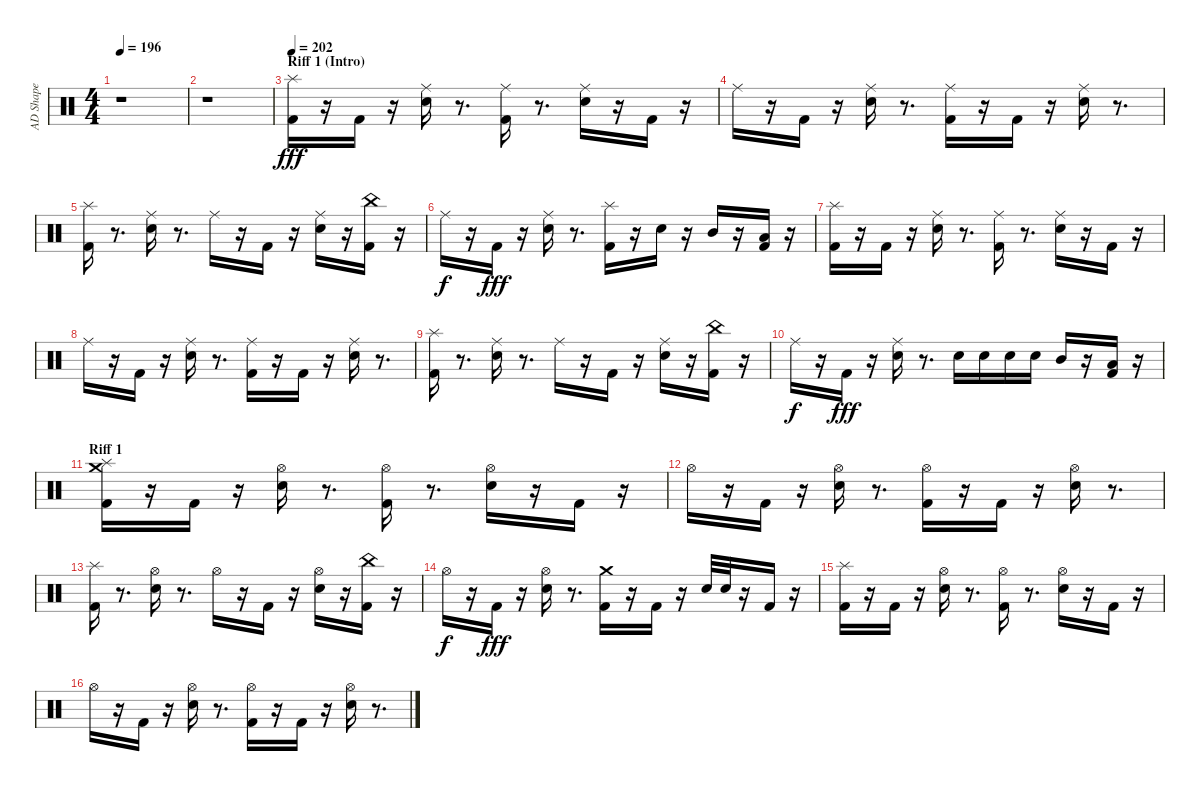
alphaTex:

\track ("AD Shape" "AD Shape") {instrument percussion}
\staff {score}
\articulation defaults
\ts (4 4)
\tempo 196
\clef neutral
\ks c
r.1{dy fff} |
r.1 |
\section ("" "Riff 1 (Intro)")
\tempo 202
("Kick (hit) 2" "Splash (hit)").16 r.16 "Kick (hit) 2".16 r.16 ("Snare (hit) 2" "Ride (middle)").16 r.8{d} ("Kick (hit) 2" "Ride (middle)").16 r.8{d} ("Snare (hit) 2" "Ride (middle)").16 r.16 "Kick (hit) 2".16 r.16 |
"Ride (middle)".16 r.16 "Kick (hit) 2".16 r.16 ("Snare (hit) 2" "Ride (middle)").16 r.8{d} ("Kick (hit) 2" "Ride (middle)").16 r.16 "Kick (hit) 2".16 r.16 ("Snare (hit) 2" "Ride (middle)").16 r.8{d} |
("Kick (hit) 2" "Splash (hit)").16 r.8{d} ("Snare (hit) 2" "Ride (middle)").16 r.8{d} "Ride (middle)".16 r.16 "Kick (hit) 2".16 r.16 ("Snare (hit) 2" "Ride (middle)").16 r.16 ("Kick (hit) 2" "China (hit)").16 r.16 |
"Ride (middle)".16{dy f} r.16 "Kick (hit) 2".16{dy fff} r.16 ("Snare (hit) 2" "Ride (middle)").16 r.8{d} ("Kick (hit) 2" "Splash (hit)").16 r.16 "Snare (hit) 2".16 r.16 "Mid Tom (hit)".16 r.16 ("Kick (hit) 2" "Low Tom (hit)").16 r.16 |
("Kick (hit) 2" "Splash (hit)").16 r.16 "Kick (hit) 2".16 r.16 ("Snare (hit) 2" "Ride (middle)").16 r.8{d} ("Kick (hit) 2" "Ride (middle)").16 r.8{d} ("Snare (hit) 2" "Ride (middle)").16 r.16 "Kick (hit) 2".16 r.16 |
"Ride (middle)".16 r.16 "Kick (hit) 2".16 r.16 ("Snare (hit) 2" "Ride (middle)").16 r.8{d} ("Kick (hit) 2" "Ride (middle)").16 r.16 "Kick (hit) 2".16 r.16 ("Snare (hit) 2" "Ride (middle)").16 r.8{d} |
("Kick (hit) 2" "Splash (hit)").16 r.8{d} ("Snare (hit) 2" "Ride (middle)").16 r.8{d} "Ride (middle)".16 r.16 "Kick (hit) 2".16 r.16 ("Snare (hit) 2" "Ride (middle)").16 r.16 ("Kick (hit) 2" "China (hit)").16 r.16 |
"Ride (middle)".16{dy f} r.16 "Kick (hit) 2".16{dy fff} r.16 ("Snare (hit) 2" "Ride (middle)").16 r.8{d} "Snare (hit) 2".16 "Snare (hit) 2".16 "Snare (hit) 2".16 "Snare (hit) 2".16 "Mid Tom (hit)".16 r.16 ("Kick (hit) 2" "Low Tom (hit)").16 r.16 |
\section ("" "Riff 1")
("Kick (hit) 2" "Splash (hit)" "Crash medium (hit)").16 r.16 "Kick (hit) 2".16 r.16 ("Snare (hit) 2" "Hi-Hat (open)").16 r.8{d} ("Kick (hit) 2" "Hi-Hat (open)").16 r.8{d} ("Snare (hit) 2" "Hi-Hat (open)").16 r.16 "Kick (hit) 2".16 r.16 |
"Hi-Hat (open)".16 r.16 "Kick (hit) 2".16 r.16 ("Snare (hit) 2" "Hi-Hat (open)").16 r.8{d} ("Kick (hit) 2" "Hi-Hat (open)").16 r.16 "Kick (hit) 2".16 r.16 ("Snare (hit) 2" "Hi-Hat (open)").16 r.8{d} |
("Kick (hit) 2" "Splash (hit)").16 r.8{d} ("Snare (hit) 2" "Hi-Hat (open)").16 r.8{d} "Hi-Hat (open)".16 r.16 "Kick (hit) 2".16 r.16 ("Snare (hit) 2" "Hi-Hat (open)").16 r.16 ("Kick (hit) 2" "China (hit)").16 r.16 |
"Hi-Hat (open)".16{dy f} r.16 "Kick (hit) 2".16{dy fff} r.16 ("Snare (hit) 2" "Hi-Hat (open)").16 r.8{d} ("Kick (hit) 2" "Crash medium (hit)").16 r.16 "Kick (hit) 2".16 r.16 "Snare (hit) 2".32 "Snare (hit) 2".32 r.16 "Kick (hit) 2".16 r.16 |
("Kick (hit) 2" "Splash (hit)").16 r.16 "Kick (hit) 2".16 r.16 ("Snare (hit) 2" "Hi-Hat (open)").16 r.8{d} ("Kick (hit) 2" "Hi-Hat (open)").16 r.8{d} ("Snare (hit) 2" "Hi-Hat (open)").16 r.16 "Kick (hit) 2".16 r.16 |
"Hi-Hat (open)".16 r.16 "Kick (hit) 2".16 r.16 ("Snare (hit) 2" "Hi-Hat (open)").16 r.8{d} ("Kick (hit) 2" "Hi-Hat (open)").16 r.16 "Kick (hit) 2".16 r.16 ("Snare (hit) 2" "Hi-Hat (open)").16 r.8{d}
